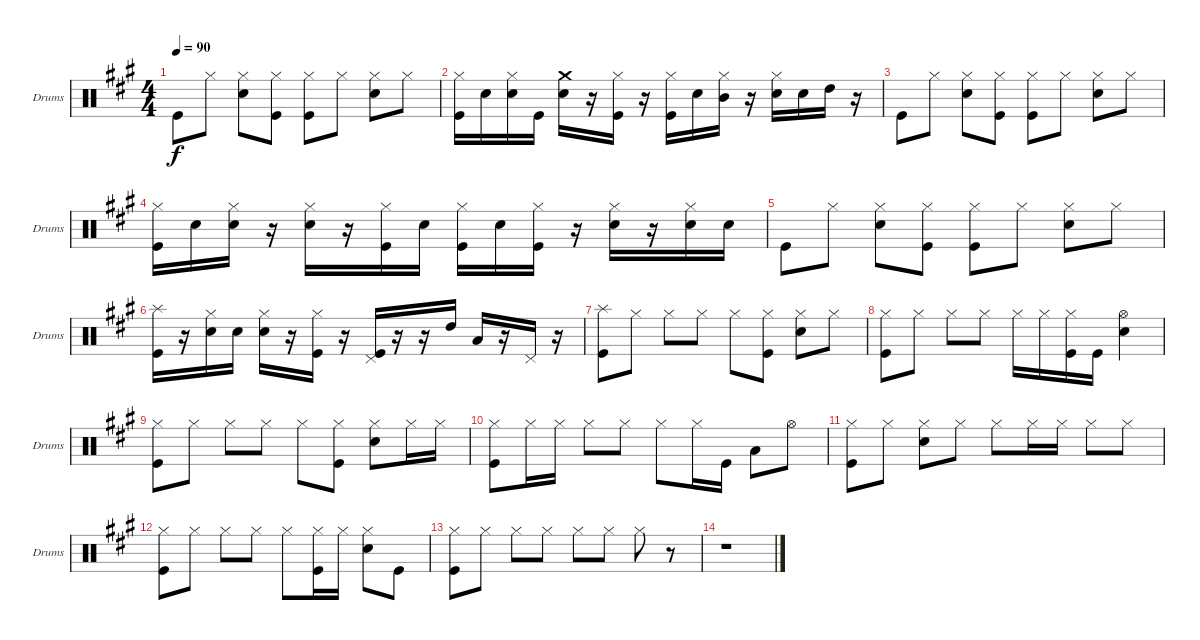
\bracketExtendMode groupsimilarinstruments
\singleTrackTrackNamePolicy allsystems
\multiTrackTrackNamePolicy allsystems
\firstSystemTrackNameOrientation horizontal
\otherSystemsTrackNameOrientation horizontal
\track ("drum" "Drums") {instrument percussion}
\staff {score}
\articulation defaults
\ts (4 4)
\scale
0.272727
\tempo 90
\accidentals auto
\clef neutral
\ottava regular
\simile none
\ks a "Kick (hit)".8{dy f} "Hi-Hat (closed)".8
("Hi-Hat (closed)" "Snare (hit) 2").8 ("Hi-Hat (closed)" "Kick (hit)").8 ("Hi-Hat (closed)" "Kick (hit)").8 "Hi-Hat (closed)".8 ("Hi-Hat (closed)" "Snare (hit) 2").8 "Hi-Hat (closed)".8 |
\scale
0.421488 ("Kick (hit)" "Hi-Hat (closed)").16 "Snare (hit) 2".16 ("Snare (hit) 2" "Hi-Hat (closed)").16 "Kick (hit)".16 ("Snare (hit) 2" "Crash medium (hit)").16 r.16 ("Kick (hit)" "Hi-Hat (closed)").16 r.16 ("Kick (hit)" "Hi-Hat (closed)").16 "Snare (hit) 2".16 ("Hi-Hat (closed)" "Mid Tom (hit)").16 r.16 ("Snare (hit) 2" "Hi-Hat (closed)").16 "Snare (hit) 2".16 "High Tom (hit)".16 r.16 |
\scale
0.345794 "Kick (hit)".8 "Hi-Hat (closed)".8 ("Hi-Hat (closed)" "Snare (hit) 2").8 ("Hi-Hat (closed)" "Kick (hit)").8 ("Hi-Hat (closed)" "Kick (hit)").8 "Hi-Hat (closed)".8 ("Hi-Hat (closed)" "Snare (hit) 2").8 "Hi-Hat (closed)".8 |
\scale
0.308411 ("Kick (hit)" "Hi-Hat (closed)").16 "Snare (hit) 2".16 ("Snare (hit) 2" "Hi-Hat (closed)").16 r.16 ("Snare (hit) 2" "Hi-Hat (closed)").16 r.16 ("Kick (hit)" "Hi-Hat (closed)").16 "Snare (hit) 2".16 ("Kick (hit)" "Hi-Hat (closed)").16 "Snare (hit) 2".16 ("Kick (hit)" "Hi-Hat (closed)").16 r.16 ("Snare (hit) 2" "Hi-Hat (closed)").16 r.16 ("Snare (hit) 2" "Hi-Hat (closed)").16 "Snare (hit) 2".16 |
\scale
0.345794 "Kick (hit)".8 "Hi-Hat (closed)".8 ("Hi-Hat (closed)" "Snare (hit) 2").8 ("Hi-Hat (closed)" "Kick (hit)").8 ("Hi-Hat (closed)" "Kick (hit)").8 "Hi-Hat (closed)".8 ("Hi-Hat (closed)" "Snare (hit) 2").8 "Hi-Hat (closed)".8 |
\scale
0.282051 ("Kick (hit)" "Splash (hit)").16 r.16 ("Snare (hit) 2" "Hi-Hat (closed)").16 "Snare (hit) 2".16 ("Snare (hit) 2" "Hi-Hat (closed)").16 r.16 ("Kick (hit)" "Hi-Hat (closed)").16 r.16 ("Kick (hit)" "Pedal Hi-Hat (hit)").16 r.16 r.16 "High Tom (hit)".16 "Low Tom (hit)".16 r.16 "Pedal Hi-Hat (hit)".16 r.16 |
\scale
0.282051 ("Kick (hit)" "Splash (hit)").8 "Hi-Hat (closed)".8 "Hi-Hat (closed)".8 "Hi-Hat (closed)".8 "Hi-Hat (closed)".8 ("Kick (hit)" "Hi-Hat (closed)").8 ("Snare (hit) 2" "Hi-Hat (closed)").8 "Hi-Hat (closed)".8 |
\scale
0.435897 ("Kick (hit)" "Hi-Hat (closed)").8 "Hi-Hat (closed)".8 "Hi-Hat (closed)".8 "Hi-Hat (closed)".8 "Hi-Hat (closed)".16 "Hi-Hat (closed)".16 ("Kick (hit)" "Hi-Hat (closed)").16 "Kick (hit)".16 ("Snare (hit) 2" "Hi-Hat (open)").4 |
\scale
0.282051 ("Kick (hit)" "Hi-Hat (closed)").8 "Hi-Hat (closed)".8 "Hi-Hat (closed)".8 "Hi-Hat (closed)".8 "Hi-Hat (closed)".8 ("Kick (hit)" "Hi-Hat (closed)").8 ("Snare (hit) 2" "Hi-Hat (closed)").8 "Hi-Hat (closed)".16 "Hi-Hat (closed)".16 |
\scale
0.435897 ("Kick (hit)" "Hi-Hat (closed)").8 "Hi-Hat (closed)".16 "Hi-Hat (closed)".16 "Hi-Hat (closed)".8 "Hi-Hat (closed)".8 "Hi-Hat (closed)".8 "Hi-Hat (closed)".16 "Kick (hit)".16 "Low Tom (hit)".8 "Hi-Hat (open)".8 |
\scale
0.282051 ("Kick (hit)" "Hi-Hat (closed)").8 "Hi-Hat (closed)".8 ("Snare (hit) 2" "Hi-Hat (closed)").8 "Hi-Hat (closed)".8 "Hi-Hat (closed)".8 "Hi-Hat (closed)".16 "Hi-Hat (closed)".16 "Hi-Hat (closed)".8 "Hi-Hat (closed)".8 |
\scale
0.555858 ("Kick (hit)" "Hi-Hat (closed)").8 "Hi-Hat (closed)".8 "Hi-Hat (closed)".8 "Hi-Hat (closed)".8 "Hi-Hat (closed)".8 ("Kick (hit)" "Hi-Hat (closed)").16 "Hi-Hat (closed)".16 ("Snare (hit) 2" "Hi-Hat (closed)").8 "Kick (hit)".8 |
\scale
0.359673 ("Kick (hit)" "Hi-Hat (closed)").8 "Hi-Hat (closed)".8 "Hi-Hat (closed)".8 "Hi-Hat (closed)".8 "Hi-Hat (closed)".8 "Hi-Hat (closed)".8 "Hi-Hat (closed)".8 r.8 |
\scale
0.0844687 r.1
